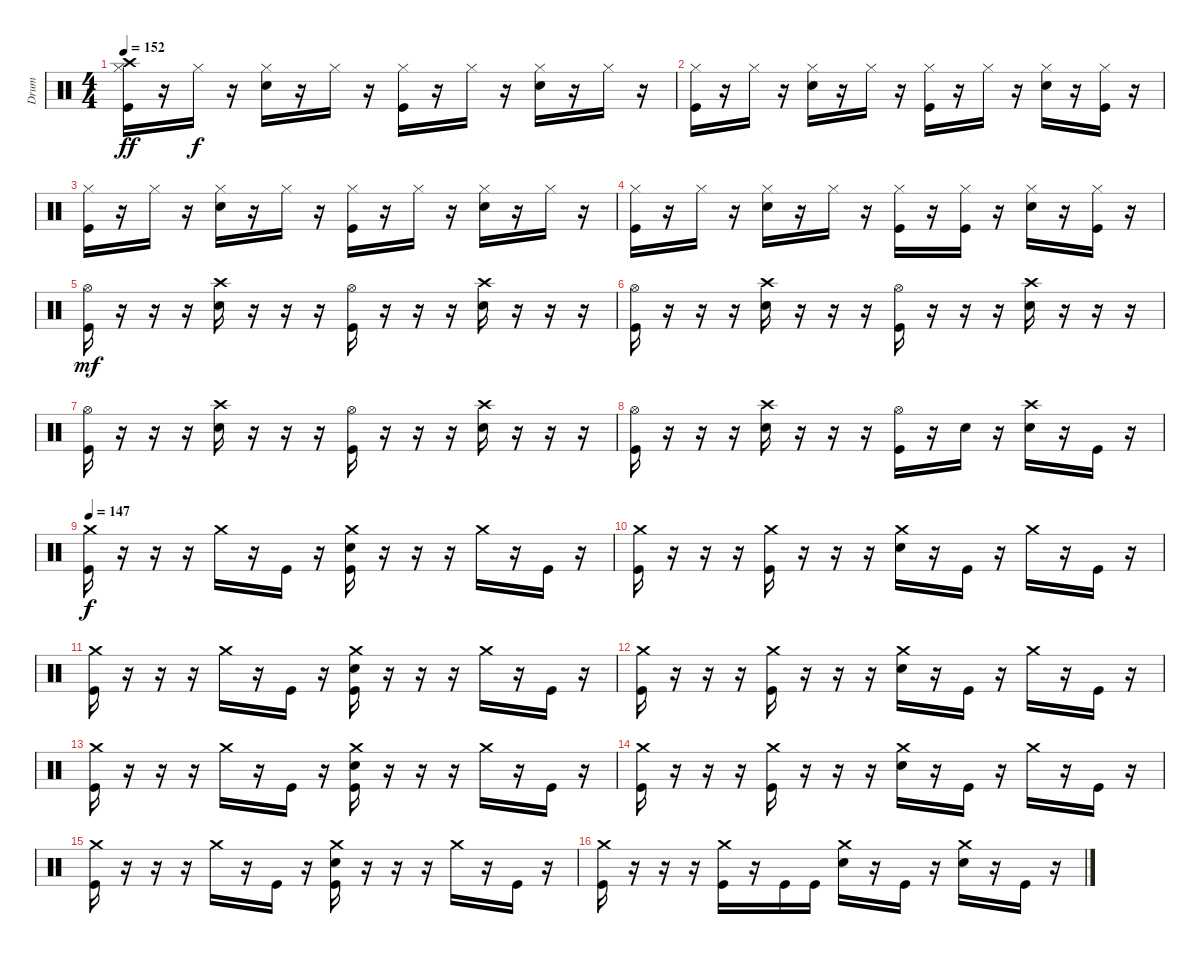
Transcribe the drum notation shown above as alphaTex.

\track ("Drum" "Drum") {instrument percussion}
\staff {score}
\articulation defaults
\ts (4 4)
\tempo 152
\clef neutral
\ks c
("Crash high (hit)" "Hi-Hat (closed)" "Kick (hit)").16{dy ff} r.16 "Hi-Hat (closed)".16{dy f} r.16 ("Hi-Hat (closed)" "Electric Snare (hit)").16 r.16 "Hi-Hat (closed)".16 r.16 ("Hi-Hat (closed)" "Kick (hit)").16 r.16 "Hi-Hat (closed)".16 r.16 ("Hi-Hat (closed)" "Electric Snare (hit)").16 r.16 "Hi-Hat (closed)".16 r.16 |
("Hi-Hat (closed)" "Kick (hit)").16 r.16 "Hi-Hat (closed)".16 r.16 ("Hi-Hat (closed)" "Electric Snare (hit)").16 r.16 "Hi-Hat (closed)".16 r.16 ("Hi-Hat (closed)" "Kick (hit)").16 r.16 "Hi-Hat (closed)".16 r.16 ("Hi-Hat (closed)" "Electric Snare (hit)").16 r.16 ("Hi-Hat (closed)" "Kick (hit)").16 r.16 |
("Hi-Hat (closed)" "Kick (hit)").16 r.16 "Hi-Hat (closed)".16 r.16 ("Hi-Hat (closed)" "Electric Snare (hit)").16 r.16 "Hi-Hat (closed)".16 r.16 ("Hi-Hat (closed)" "Kick (hit)").16 r.16 "Hi-Hat (closed)".16 r.16 ("Hi-Hat (closed)" "Electric Snare (hit)").16 r.16 "Hi-Hat (closed)".16 r.16 |
("Hi-Hat (closed)" "Kick (hit)").16 r.16 "Hi-Hat (closed)".16 r.16 ("Hi-Hat (closed)" "Electric Snare (hit)").16 r.16 "Hi-Hat (closed)".16 r.16 ("Hi-Hat (closed)" "Kick (hit)").16 r.16 ("Hi-Hat (closed)" "Kick (hit)").16 r.16 ("Hi-Hat (closed)" "Electric Snare (hit)").16 r.16 ("Hi-Hat (closed)" "Kick (hit)").16 r.16 |
("Hi-Hat (open)" "Kick (hit)").16{dy mf} r.16 r.16 r.16 ("Crash high (hit)" "Electric Snare (hit)").16 r.16 r.16 r.16 ("Hi-Hat (open)" "Kick (hit)").16 r.16 r.16 r.16 ("Crash high (hit)" "Electric Snare (hit)").16 r.16 r.16 r.16 |
("Hi-Hat (open)" "Kick (hit)").16 r.16 r.16 r.16 ("Crash high (hit)" "Electric Snare (hit)").16 r.16 r.16 r.16 ("Hi-Hat (open)" "Kick (hit)").16 r.16 r.16 r.16 ("Crash high (hit)" "Electric Snare (hit)").16 r.16 r.16 r.16 |
("Hi-Hat (open)" "Kick (hit)").16 r.16 r.16 r.16 ("Crash high (hit)" "Electric Snare (hit)").16 r.16 r.16 r.16 ("Hi-Hat (open)" "Kick (hit)").16 r.16 r.16 r.16 ("Crash high (hit)" "Electric Snare (hit)").16 r.16 r.16 r.16 |
("Hi-Hat (open)" "Kick (hit)").16 r.16 r.16 r.16 ("Crash high (hit)" "Electric Snare (hit)").16 r.16 r.16 r.16 ("Hi-Hat (open)" "Kick (hit)").16 r.16 "Electric Snare (hit)".16 r.16 ("Crash high (hit)" "Electric Snare (hit)").16 r.16 "Kick (hit)".16 r.16 |
\tempo 147
("Crash medium (hit)" "Kick (hit)").16{dy f} r.16 r.16 r.16 "Crash medium (hit)".16 r.16 "Kick (hit)".16 r.16 ("Crash medium (hit)" "Electric Snare (hit)" "Kick (hit)").16 r.16 r.16 r.16 "Crash medium (hit)".16 r.16 "Kick (hit)".16 r.16 |
("Crash medium (hit)" "Kick (hit)").16 r.16 r.16 r.16 ("Crash medium (hit)" "Kick (hit)").16 r.16 r.16 r.16 ("Crash medium (hit)" "Electric Snare (hit)").16 r.16 "Kick (hit)".16 r.16 "Crash medium (hit)".16 r.16 "Kick (hit)".16 r.16 |
("Crash medium (hit)" "Kick (hit)").16 r.16 r.16 r.16 "Crash medium (hit)".16 r.16 "Kick (hit)".16 r.16 ("Crash medium (hit)" "Electric Snare (hit)" "Kick (hit)").16 r.16 r.16 r.16 "Crash medium (hit)".16 r.16 "Kick (hit)".16 r.16 |
("Crash medium (hit)" "Kick (hit)").16 r.16 r.16 r.16 ("Crash medium (hit)" "Kick (hit)").16 r.16 r.16 r.16 ("Crash medium (hit)" "Electric Snare (hit)").16 r.16 "Kick (hit)".16 r.16 "Crash medium (hit)".16 r.16 "Kick (hit)".16 r.16 |
("Crash medium (hit)" "Kick (hit)").16 r.16 r.16 r.16 "Crash medium (hit)".16 r.16 "Kick (hit)".16 r.16 ("Crash medium (hit)" "Electric Snare (hit)" "Kick (hit)").16 r.16 r.16 r.16 "Crash medium (hit)".16 r.16 "Kick (hit)".16 r.16 |
("Crash medium (hit)" "Kick (hit)").16 r.16 r.16 r.16 ("Crash medium (hit)" "Kick (hit)").16 r.16 r.16 r.16 ("Crash medium (hit)" "Electric Snare (hit)").16 r.16 "Kick (hit)".16 r.16 "Crash medium (hit)".16 r.16 "Kick (hit)".16 r.16 |
("Crash medium (hit)" "Kick (hit)").16 r.16 r.16 r.16 "Crash medium (hit)".16 r.16 "Kick (hit)".16 r.16 ("Crash medium (hit)" "Electric Snare (hit)" "Kick (hit)").16 r.16 r.16 r.16 "Crash medium (hit)".16 r.16 "Kick (hit)".16 r.16 |
("Crash medium (hit)" "Kick (hit)").16 r.16 r.16 r.16 ("Crash medium (hit)" "Kick (hit)").16 r.16 "Kick (hit)".16 "Kick (hit)".16 ("Crash medium (hit)" "Electric Snare (hit)").16 r.16 "Kick (hit)".16 r.16 ("Crash medium (hit)" "Electric Snare (hit)").16 r.16 "Kick (hit)".16 r.16
